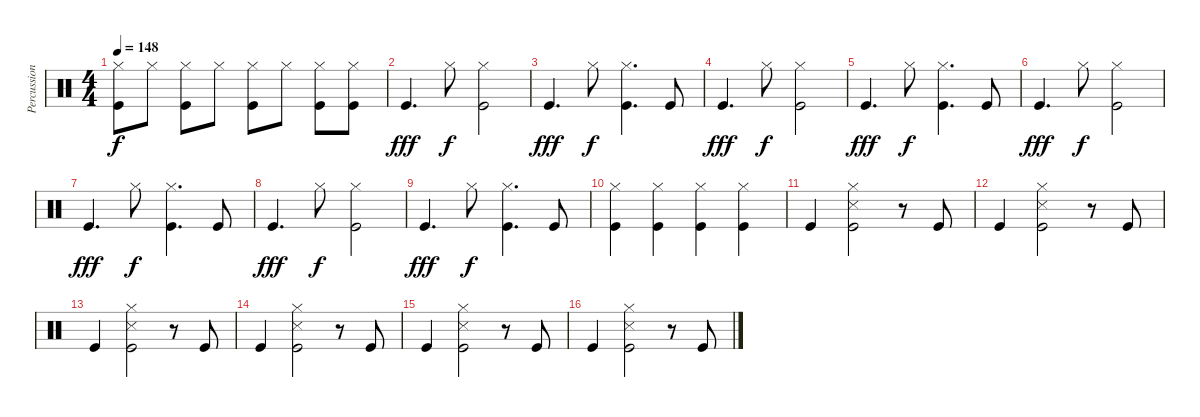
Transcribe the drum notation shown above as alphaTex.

\track ("Percussion" "Percussion") {instrument percussion}
\staff {score}
\articulation defaults
\ts (4 4)
\tempo 148
\clef neutral
\ks c
("Hi-Hat (closed)" "Kick (hit)").8{dy f} "Hi-Hat (closed)".8 ("Hi-Hat (closed)" "Kick (hit)").8 "Hi-Hat (closed)".8 ("Hi-Hat (closed)" "Kick (hit)").8 "Hi-Hat (closed)".8 ("Hi-Hat (closed)" "Kick (hit)").8 ("Hi-Hat (closed)" "Kick (hit)").8 |
"Kick (hit)".4{d dy fff} "Hi-Hat (closed)".8{dy f} ("Kick (hit)" "Hi-Hat (closed)").2 |
"Kick (hit)".4{d dy fff} "Hi-Hat (closed)".8{dy f} ("Hi-Hat (closed)" "Kick (hit)").4{d} "Kick (hit)".8 |
"Kick (hit)".4{d dy fff} "Hi-Hat (closed)".8{dy f} ("Kick (hit)" "Hi-Hat (closed)").2 |
"Kick (hit)".4{d dy fff} "Hi-Hat (closed)".8{dy f} ("Hi-Hat (closed)" "Kick (hit)").4{d} "Kick (hit)".8 |
"Kick (hit)".4{d dy fff} "Hi-Hat (closed)".8{dy f} ("Kick (hit)" "Hi-Hat (closed)").2 |
"Kick (hit)".4{d dy fff} "Hi-Hat (closed)".8{dy f} ("Hi-Hat (closed)" "Kick (hit)").4{d} "Kick (hit)".8 |
"Kick (hit)".4{d dy fff} "Hi-Hat (closed)".8{dy f} ("Kick (hit)" "Hi-Hat (closed)").2 |
"Kick (hit)".4{d dy fff} "Hi-Hat (closed)".8{dy f} ("Hi-Hat (closed)" "Kick (hit)").4{d} "Kick (hit)".8 |
("Hi-Hat (closed)" "Kick (hit)").4 ("Hi-Hat (closed)" "Kick (hit)").4 ("Hi-Hat (closed)" "Kick (hit)").4 ("Hi-Hat (closed)" "Kick (hit)").4 |
"Kick (hit)".4 ("Snare (side stick) 3" "Hi-Hat (closed)" "Kick (hit)").2 r.8 "Kick (hit)".8 |
"Kick (hit)".4 ("Snare (side stick) 3" "Hi-Hat (closed)" "Kick (hit)").2 r.8 "Kick (hit)".8 |
"Kick (hit)".4 ("Snare (side stick) 3" "Hi-Hat (closed)" "Kick (hit)").2 r.8 "Kick (hit)".8 |
"Kick (hit)".4 ("Snare (side stick) 3" "Hi-Hat (closed)" "Kick (hit)").2 r.8 "Kick (hit)".8 |
"Kick (hit)".4 ("Snare (side stick) 3" "Hi-Hat (closed)" "Kick (hit)").2 r.8 "Kick (hit)".8 |
"Kick (hit)".4 ("Snare (side stick) 3" "Hi-Hat (closed)" "Kick (hit)").2 r.8 "Kick (hit)".8
